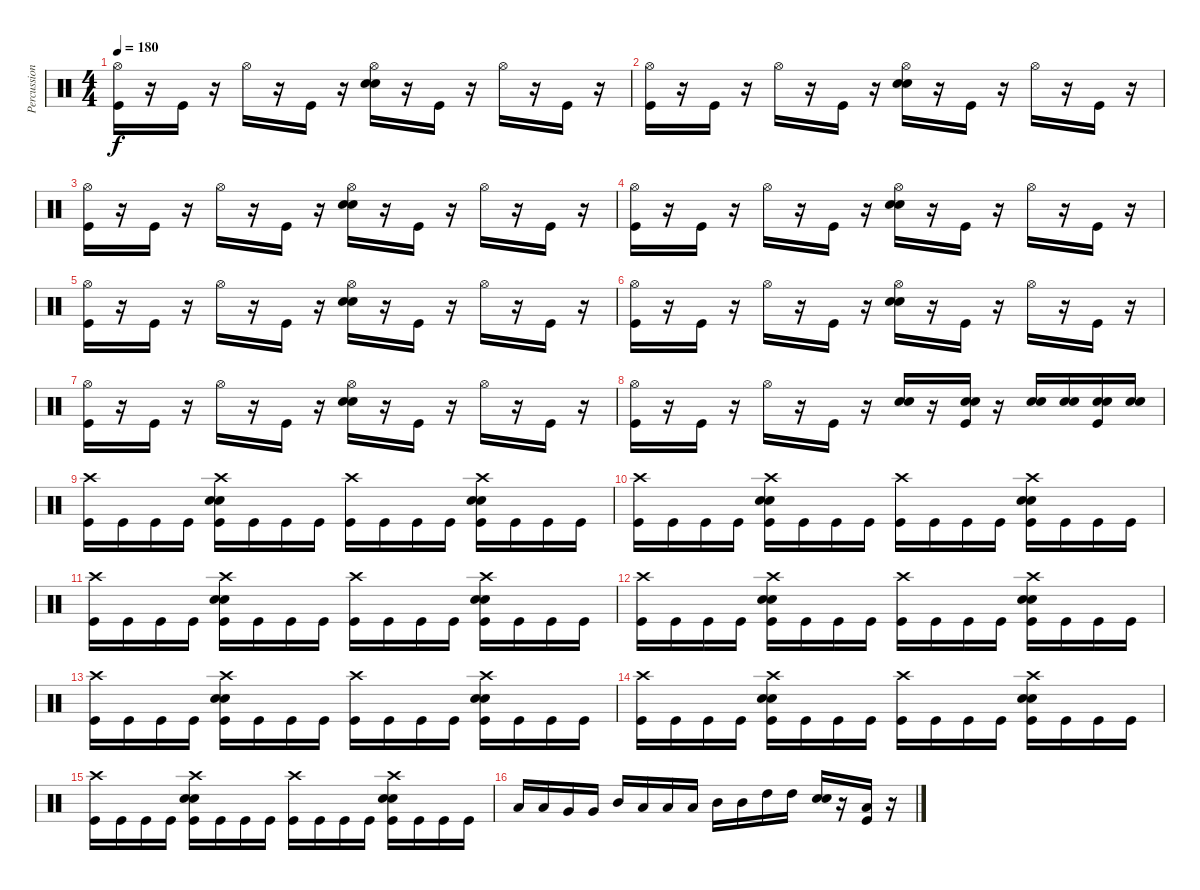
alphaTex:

\track ("Percussion" "Percussion") {instrument percussion}
\staff {score}
\articulation defaults
\ts (4 4)
\tempo 180
\clef neutral
\ks c
("Hi-Hat (open)" "Kick (hit)").16{dy f} r.16 "Kick (hit)".16 r.16 "Hi-Hat (open)".16 r.16 "Kick (hit)".16 r.16 ("Hi-Hat (open)" "Snare (hit) 2" "Electric Snare (hit)").16 r.16 "Kick (hit)".16 r.16 "Hi-Hat (open)".16 r.16 "Kick (hit)".16 r.16 |
("Hi-Hat (open)" "Kick (hit)").16 r.16 "Kick (hit)".16 r.16 "Hi-Hat (open)".16 r.16 "Kick (hit)".16 r.16 ("Hi-Hat (open)" "Snare (hit) 2" "Electric Snare (hit)").16 r.16 "Kick (hit)".16 r.16 "Hi-Hat (open)".16 r.16 "Kick (hit)".16 r.16 |
("Hi-Hat (open)" "Kick (hit)").16 r.16 "Kick (hit)".16 r.16 "Hi-Hat (open)".16 r.16 "Kick (hit)".16 r.16 ("Hi-Hat (open)" "Snare (hit) 2" "Electric Snare (hit)").16 r.16 "Kick (hit)".16 r.16 "Hi-Hat (open)".16 r.16 "Kick (hit)".16 r.16 |
("Hi-Hat (open)" "Kick (hit)").16 r.16 "Kick (hit)".16 r.16 "Hi-Hat (open)".16 r.16 "Kick (hit)".16 r.16 ("Hi-Hat (open)" "Snare (hit) 2" "Electric Snare (hit)").16 r.16 "Kick (hit)".16 r.16 "Hi-Hat (open)".16 r.16 "Kick (hit)".16 r.16 |
("Hi-Hat (open)" "Kick (hit)").16 r.16 "Kick (hit)".16 r.16 "Hi-Hat (open)".16 r.16 "Kick (hit)".16 r.16 ("Hi-Hat (open)" "Snare (hit) 2" "Electric Snare (hit)").16 r.16 "Kick (hit)".16 r.16 "Hi-Hat (open)".16 r.16 "Kick (hit)".16 r.16 |
("Hi-Hat (open)" "Kick (hit)").16 r.16 "Kick (hit)".16 r.16 "Hi-Hat (open)".16 r.16 "Kick (hit)".16 r.16 ("Hi-Hat (open)" "Snare (hit) 2" "Electric Snare (hit)").16 r.16 "Kick (hit)".16 r.16 "Hi-Hat (open)".16 r.16 "Kick (hit)".16 r.16 |
("Hi-Hat (open)" "Kick (hit)").16 r.16 "Kick (hit)".16 r.16 "Hi-Hat (open)".16 r.16 "Kick (hit)".16 r.16 ("Hi-Hat (open)" "Snare (hit) 2" "Electric Snare (hit)").16 r.16 "Kick (hit)".16 r.16 "Hi-Hat (open)".16 r.16 "Kick (hit)".16 r.16 |
("Hi-Hat (open)" "Kick (hit)").16 r.16 "Kick (hit)".16 r.16 "Hi-Hat (open)".16 r.16 "Kick (hit)".16 r.16 ("Snare (hit) 2" "Electric Snare (hit)").16 r.16 ("Snare (hit) 2" "Electric Snare (hit)" "Kick (hit)").16 r.16 ("Snare (hit) 2" "Electric Snare (hit)").16 ("Snare (hit) 2" "Electric Snare (hit)").16 ("Snare (hit) 2" "Electric Snare (hit)" "Kick (hit)").16 ("Snare (hit) 2" "Electric Snare (hit)").16 |
("Crash high (hit)" "Kick (hit)").16 "Kick (hit)".16 "Kick (hit)".16 "Kick (hit)".16 ("Crash high (hit)" "Snare (hit) 2" "Electric Snare (hit)" "Kick (hit)").16 "Kick (hit)".16 "Kick (hit)".16 "Kick (hit)".16 ("Crash high (hit)" "Kick (hit)").16 "Kick (hit)".16 "Kick (hit)".16 "Kick (hit)".16 ("Crash high (hit)" "Snare (hit) 2" "Electric Snare (hit)" "Kick (hit)").16 "Kick (hit)".16 "Kick (hit)".16 "Kick (hit)".16 |
("Crash high (hit)" "Kick (hit)").16 "Kick (hit)".16 "Kick (hit)".16 "Kick (hit)".16 ("Crash high (hit)" "Snare (hit) 2" "Electric Snare (hit)" "Kick (hit)").16 "Kick (hit)".16 "Kick (hit)".16 "Kick (hit)".16 ("Crash high (hit)" "Kick (hit)").16 "Kick (hit)".16 "Kick (hit)".16 "Kick (hit)".16 ("Crash high (hit)" "Snare (hit) 2" "Electric Snare (hit)" "Kick (hit)").16 "Kick (hit)".16 "Kick (hit)".16 "Kick (hit)".16 |
("Crash high (hit)" "Kick (hit)").16 "Kick (hit)".16 "Kick (hit)".16 "Kick (hit)".16 ("Crash high (hit)" "Snare (hit) 2" "Electric Snare (hit)" "Kick (hit)").16 "Kick (hit)".16 "Kick (hit)".16 "Kick (hit)".16 ("Crash high (hit)" "Kick (hit)").16 "Kick (hit)".16 "Kick (hit)".16 "Kick (hit)".16 ("Crash high (hit)" "Snare (hit) 2" "Electric Snare (hit)" "Kick (hit)").16 "Kick (hit)".16 "Kick (hit)".16 "Kick (hit)".16 |
("Crash high (hit)" "Kick (hit)").16 "Kick (hit)".16 "Kick (hit)".16 "Kick (hit)".16 ("Crash high (hit)" "Snare (hit) 2" "Electric Snare (hit)" "Kick (hit)").16 "Kick (hit)".16 "Kick (hit)".16 "Kick (hit)".16 ("Crash high (hit)" "Kick (hit)").16 "Kick (hit)".16 "Kick (hit)".16 "Kick (hit)".16 ("Crash high (hit)" "Snare (hit) 2" "Electric Snare (hit)" "Kick (hit)").16 "Kick (hit)".16 "Kick (hit)".16 "Kick (hit)".16 |
("Crash high (hit)" "Kick (hit)").16 "Kick (hit)".16 "Kick (hit)".16 "Kick (hit)".16 ("Crash high (hit)" "Snare (hit) 2" "Electric Snare (hit)" "Kick (hit)").16 "Kick (hit)".16 "Kick (hit)".16 "Kick (hit)".16 ("Crash high (hit)" "Kick (hit)").16 "Kick (hit)".16 "Kick (hit)".16 "Kick (hit)".16 ("Crash high (hit)" "Snare (hit) 2" "Electric Snare (hit)" "Kick (hit)").16 "Kick (hit)".16 "Kick (hit)".16 "Kick (hit)".16 |
("Crash high (hit)" "Kick (hit)").16 "Kick (hit)".16 "Kick (hit)".16 "Kick (hit)".16 ("Crash high (hit)" "Snare (hit) 2" "Electric Snare (hit)" "Kick (hit)").16 "Kick (hit)".16 "Kick (hit)".16 "Kick (hit)".16 ("Crash high (hit)" "Kick (hit)").16 "Kick (hit)".16 "Kick (hit)".16 "Kick (hit)".16 ("Crash high (hit)" "Snare (hit) 2" "Electric Snare (hit)" "Kick (hit)").16 "Kick (hit)".16 "Kick (hit)".16 "Kick (hit)".16 |
("Crash high (hit)" "Kick (hit)").16 "Kick (hit)".16 "Kick (hit)".16 "Kick (hit)".16 ("Crash high (hit)" "Snare (hit) 2" "Electric Snare (hit)" "Kick (hit)").16 "Kick (hit)".16 "Kick (hit)".16 "Kick (hit)".16 ("Crash high (hit)" "Kick (hit)").16 "Kick (hit)".16 "Kick (hit)".16 "Kick (hit)".16 ("Crash high (hit)" "Snare (hit) 2" "Electric Snare (hit)" "Kick (hit)").16 "Kick (hit)".16 "Kick (hit)".16 "Kick (hit)".16 |
"Low Floor Tom (hit)".16 "Low Floor Tom (hit)".16 "Very Low Tom (hit)".16 "Very Low Tom (hit)".16 "Mid Tom (hit)".16 "Low Tom (hit)".16 "Low Tom (hit)".16 "Low Tom (hit)".16 "Mid Tom (hit)".16 "Mid Tom (hit)".16 "High Tom (hit)".16 "High Tom (hit)".16 ("Snare (hit) 2" "Electric Snare (hit)").16 r.16 ("Low Floor Tom (hit)" "Kick (hit)").16 r.16
